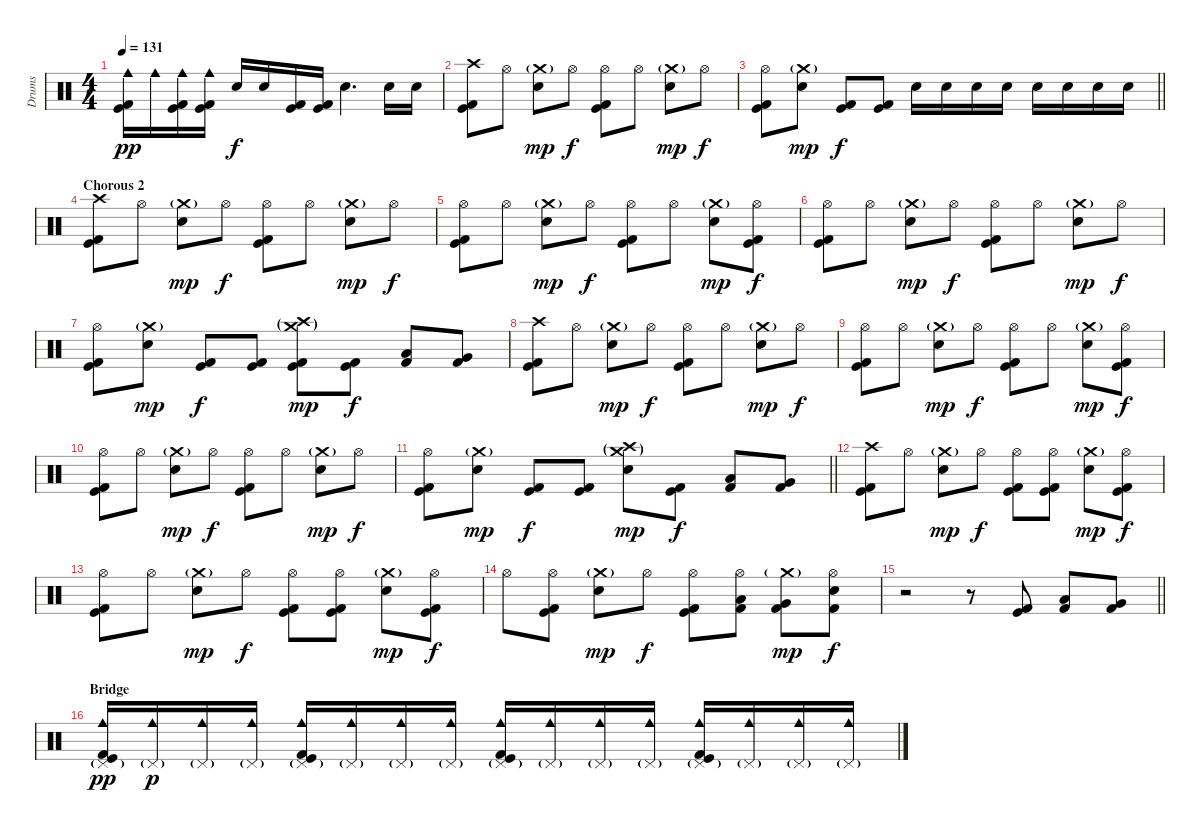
\track ("Drums" "Drums") {instrument percussion}
\staff {score}
\articulation defaults
\ts (4 4)
\tempo 131
\clef neutral
\ks c
("Kick (hit)" "Kick (hit) 2" "Cowbell medium (hit)").16{dy pp} "Cowbell medium (hit)".16 ("Kick (hit)" "Kick (hit) 2" "Cowbell medium (hit)").16 ("Kick (hit)" "Kick (hit) 2" "Cowbell medium (hit)").16 "Electric Snare (hit)".16{dy f} "Electric Snare (hit)".16 ("Kick (hit)" "Kick (hit) 2").16 ("Kick (hit)" "Kick (hit) 2").16 "Electric Snare (hit)".4{d} "Electric Snare (hit)".16 "Electric Snare (hit)".16 |
("Crash high (hit)" "Kick (hit)" "Kick (hit) 2").8 "Hi-Hat (open)".8 ("Crash medium (hit)"{g} "Electric Snare (hit)").8{dy mp} "Hi-Hat (open)".8{dy f} ("Hi-Hat (open)" "Kick (hit)" "Kick (hit) 2").8 "Hi-Hat (open)".8 ("Crash medium (hit)"{g} "Electric Snare (hit)").8{dy mp} "Hi-Hat (open)".8{dy f} |
\barLineRight lightlight
("Hi-Hat (open)" "Kick (hit)" "Kick (hit) 2").8 ("Crash medium (hit)"{g} "Electric Snare (hit)").8{dy mp} ("Kick (hit)" "Kick (hit) 2").8{dy f} ("Kick (hit)" "Kick (hit) 2").8 "Electric Snare (hit)".16 "Electric Snare (hit)".16 "Electric Snare (hit)".16 "Electric Snare (hit)".16 "Electric Snare (hit)".16 "Electric Snare (hit)".16 "Electric Snare (hit)".16 "Electric Snare (hit)".16 |
\section ("" "Chorous 2")
("Crash high (hit)" "Kick (hit)" "Kick (hit) 2").8 "Hi-Hat (open)".8 ("Crash medium (hit)"{g} "Electric Snare (hit)").8{dy mp} "Hi-Hat (open)".8{dy f} ("Hi-Hat (open)" "Kick (hit)" "Kick (hit) 2").8 "Hi-Hat (open)".8 ("Crash medium (hit)"{g} "Electric Snare (hit)").8{dy mp} "Hi-Hat (open)".8{dy f} |
("Hi-Hat (open)" "Kick (hit)" "Kick (hit) 2").8 "Hi-Hat (open)".8 ("Crash medium (hit)"{g} "Electric Snare (hit)").8{dy mp} "Hi-Hat (open)".8{dy f} ("Hi-Hat (open)" "Kick (hit)" "Kick (hit) 2").8 "Hi-Hat (open)".8 ("Crash medium (hit)"{g} "Electric Snare (hit)").8{dy mp} ("Hi-Hat (open)" "Kick (hit)" "Kick (hit) 2").8{dy f} |
("Hi-Hat (open)" "Kick (hit)" "Kick (hit) 2").8 "Hi-Hat (open)".8 ("Crash medium (hit)"{g} "Electric Snare (hit)").8{dy mp} "Hi-Hat (open)".8{dy f} ("Hi-Hat (open)" "Kick (hit)" "Kick (hit) 2").8 "Hi-Hat (open)".8 ("Crash medium (hit)"{g} "Electric Snare (hit)").8{dy mp} "Hi-Hat (open)".8{dy f} |
("Hi-Hat (open)" "Kick (hit)" "Kick (hit) 2").8 ("Crash medium (hit)"{g} "Electric Snare (hit)").8{dy mp} ("Kick (hit)" "Kick (hit) 2").8{dy f} ("Kick (hit)" "Kick (hit) 2").8 ("Crash medium (hit)"{g} "Crash high (hit)"{g} "Kick (hit)" "Kick (hit) 2").8{dy mp} ("Kick (hit)" "Kick (hit) 2").8{dy f} ("Kick (hit) 2" "Low Tom (hit)").8 ("Kick (hit) 2" "Very Low Tom (hit)").8 |
("Crash high (hit)" "Kick (hit)" "Kick (hit) 2").8 "Hi-Hat (open)".8 ("Crash medium (hit)"{g} "Electric Snare (hit)").8{dy mp} "Hi-Hat (open)".8{dy f} ("Hi-Hat (open)" "Kick (hit)" "Kick (hit) 2").8 "Hi-Hat (open)".8 ("Crash medium (hit)"{g} "Electric Snare (hit)").8{dy mp} "Hi-Hat (open)".8{dy f} |
("Hi-Hat (open)" "Kick (hit)" "Kick (hit) 2").8 "Hi-Hat (open)".8 ("Crash medium (hit)"{g} "Electric Snare (hit)").8{dy mp} "Hi-Hat (open)".8{dy f} ("Hi-Hat (open)" "Kick (hit)" "Kick (hit) 2").8 "Hi-Hat (open)".8 ("Crash medium (hit)"{g} "Electric Snare (hit)").8{dy mp} ("Hi-Hat (open)" "Kick (hit)" "Kick (hit) 2").8{dy f} |
("Hi-Hat (open)" "Kick (hit)" "Kick (hit) 2").8 "Hi-Hat (open)".8 ("Crash medium (hit)"{g} "Electric Snare (hit)").8{dy mp} "Hi-Hat (open)".8{dy f} ("Hi-Hat (open)" "Kick (hit)" "Kick (hit) 2").8 "Hi-Hat (open)".8 ("Crash medium (hit)"{g} "Electric Snare (hit)").8{dy mp} "Hi-Hat (open)".8{dy f} |
\barLineRight lightlight
("Hi-Hat (open)" "Kick (hit)" "Kick (hit) 2").8 ("Crash medium (hit)"{g} "Electric Snare (hit)").8{dy mp} ("Kick (hit)" "Kick (hit) 2").8{dy f} ("Kick (hit)" "Kick (hit) 2").8 ("Crash medium (hit)"{g} "Crash high (hit)"{g} "Electric Snare (hit)").8{dy mp} ("Kick (hit)" "Kick (hit) 2").8{dy f} ("Kick (hit) 2" "Low Tom (hit)").8 ("Kick (hit) 2" "Very Low Tom (hit)").8 |
\section ("" "")
("Crash high (hit)" "Kick (hit)" "Kick (hit) 2").8 "Hi-Hat (open)".8 ("Crash medium (hit)"{g} "Electric Snare (hit)").8{dy mp} "Hi-Hat (open)".8{dy f} ("Hi-Hat (open)" "Kick (hit)" "Kick (hit) 2").8 ("Hi-Hat (open)" "Kick (hit)" "Kick (hit) 2").8 ("Crash medium (hit)"{g} "Electric Snare (hit)").8{dy mp} ("Hi-Hat (open)" "Kick (hit)" "Kick (hit) 2").8{dy f} |
("Hi-Hat (open)" "Kick (hit)" "Kick (hit) 2").8 "Hi-Hat (open)".8 ("Crash medium (hit)"{g} "Electric Snare (hit)").8{dy mp} "Hi-Hat (open)".8{dy f} ("Hi-Hat (open)" "Kick (hit)" "Kick (hit) 2").8 ("Hi-Hat (open)" "Kick (hit)" "Kick (hit) 2").8 ("Crash medium (hit)"{g} "Electric Snare (hit)").8{dy mp} ("Hi-Hat (open)" "Kick (hit)" "Kick (hit) 2").8{dy f} |
"Hi-Hat (open)".8 ("Hi-Hat (open)" "Kick (hit)" "Kick (hit) 2").8 ("Crash medium (hit)"{g} "Electric Snare (hit)").8{dy mp} "Hi-Hat (open)".8{dy f} ("Hi-Hat (open)" "Kick (hit)" "Kick (hit) 2").8 ("Hi-Hat (open)" "Kick (hit) 2" "Low Tom (hit)").8 ("Crash medium (hit)"{g} "Kick (hit) 2" "Very Low Tom (hit)").8{dy mp} ("Hi-Hat (open)" "Electric Snare (hit)" "Kick (hit) 2").8{dy f} |
\barLineRight lightlight
r.2 r.8 ("Kick (hit)" "Kick (hit) 2").8 ("Kick (hit) 2" "Low Tom (hit)").8 ("Kick (hit) 2" "Very Low Tom (hit)").8 |
\section ("" "Bridge")
("Pedal Hi-Hat (hit)"{g} "Kick (hit)" "Kick (hit) 2" "Cowbell medium (hit)").16{dy pp} ("Pedal Hi-Hat (hit)"{g} "Cowbell medium (hit)").16{dy p} ("Pedal Hi-Hat (hit)"{g} "Cowbell medium (hit)").16 ("Pedal Hi-Hat (hit)"{g} "Cowbell medium (hit)").16 ("Pedal Hi-Hat (hit)"{g} "Kick (hit)" "Kick (hit) 2" "Cowbell medium (hit)").16 ("Pedal Hi-Hat (hit)"{g} "Cowbell medium (hit)").16 ("Pedal Hi-Hat (hit)"{g} "Cowbell medium (hit)").16 ("Pedal Hi-Hat (hit)"{g} "Cowbell medium (hit)").16 ("Pedal Hi-Hat (hit)"{g} "Kick (hit)" "Kick (hit) 2" "Cowbell medium (hit)").16 ("Pedal Hi-Hat (hit)"{g} "Cowbell medium (hit)").16 ("Pedal Hi-Hat (hit)"{g} "Cowbell medium (hit)").16 ("Pedal Hi-Hat (hit)"{g} "Cowbell medium (hit)").16 ("Pedal Hi-Hat (hit)"{g} "Kick (hit)" "Kick (hit) 2" "Cowbell medium (hit)").16 ("Pedal Hi-Hat (hit)"{g} "Cowbell medium (hit)").16 ("Pedal Hi-Hat (hit)"{g} "Cowbell medium (hit)").16 ("Pedal Hi-Hat (hit)"{g} "Cowbell medium (hit)").16
